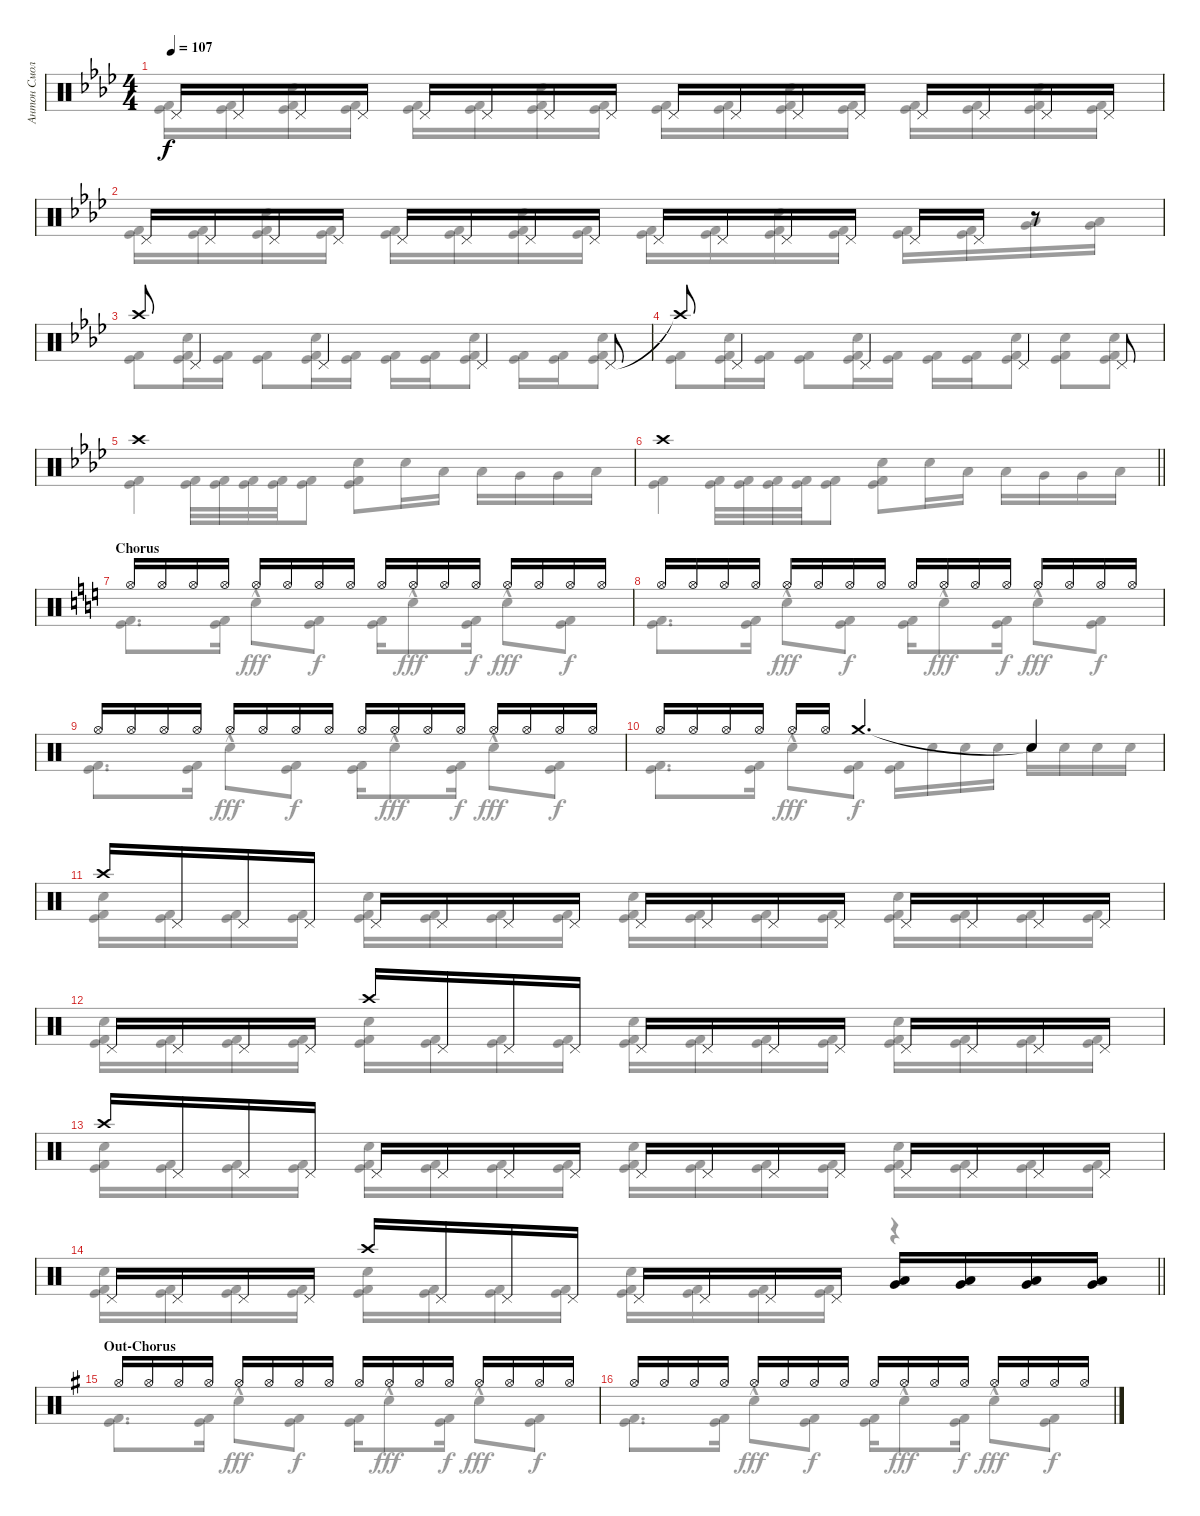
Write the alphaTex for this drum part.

\track ("Антон Смольянин" "Антон Смол") {instrument percussion}
\staff {score}
\articulation defaults
\voice
\ts (4 4)
\tempo 107
\clef neutral
\ks ab "Pedal Hi-Hat (hit)".16{dy f} "Pedal Hi-Hat (hit)".16 "Pedal Hi-Hat (hit)".16 "Pedal Hi-Hat (hit)".16 "Pedal Hi-Hat (hit)".16 "Pedal Hi-Hat (hit)".16 "Pedal Hi-Hat (hit)".16 "Pedal Hi-Hat (hit)".16 "Pedal Hi-Hat (hit)".16 "Pedal Hi-Hat (hit)".16 "Pedal Hi-Hat (hit)".16 "Pedal Hi-Hat (hit)".16 "Pedal Hi-Hat (hit)".16 "Pedal Hi-Hat (hit)".16 "Pedal Hi-Hat (hit)".16 "Pedal Hi-Hat (hit)".16
|
"Pedal Hi-Hat (hit)".16 "Pedal Hi-Hat (hit)".16 "Pedal Hi-Hat (hit)".16 "Pedal Hi-Hat (hit)".16 "Pedal Hi-Hat (hit)".16 "Pedal Hi-Hat (hit)".16 "Pedal Hi-Hat (hit)".16 "Pedal Hi-Hat (hit)".16 "Pedal Hi-Hat (hit)".16 "Pedal Hi-Hat (hit)".16 "Pedal Hi-Hat (hit)".16 "Pedal Hi-Hat (hit)".16 "Pedal Hi-Hat (hit)".16 "Pedal Hi-Hat (hit)".16 r.8 |
"Crash high (hit)".8 "Pedal Hi-Hat (hit)".4 "Pedal Hi-Hat (hit)".4 "Pedal Hi-Hat (hit)".4 "Pedal Hi-Hat (hit)".8 |
"Crash high (hit)"{t}.8 "Pedal Hi-Hat (hit)".4 "Pedal Hi-Hat (hit)".4 "Pedal Hi-Hat (hit)".4 "Pedal Hi-Hat (hit)".8 |
"Crash high (hit)".1 |
\barLineRight lightlight "Crash high (hit)".1
|
\section ("" "Chorus")
\ks c "Hi-Hat (open)".16 "Hi-Hat (open)".16 "Hi-Hat (open)".16 "Hi-Hat (open)".16 "Hi-Hat (open)".16 "Hi-Hat (open)".16 "Hi-Hat (open)".16 "Hi-Hat (open)".16 "Hi-Hat (open)".16 "Hi-Hat (open)".16 "Hi-Hat (open)".16 "Hi-Hat (open)".16 "Hi-Hat (open)".16 "Hi-Hat (open)".16 "Hi-Hat (open)".16 "Hi-Hat (open)".16
|
"Hi-Hat (open)".16 "Hi-Hat (open)".16 "Hi-Hat (open)".16 "Hi-Hat (open)".16 "Hi-Hat (open)".16 "Hi-Hat (open)".16 "Hi-Hat (open)".16 "Hi-Hat (open)".16 "Hi-Hat (open)".16 "Hi-Hat (open)".16 "Hi-Hat (open)".16 "Hi-Hat (open)".16 "Hi-Hat (open)".16 "Hi-Hat (open)".16 "Hi-Hat (open)".16 "Hi-Hat (open)".16 |
"Hi-Hat (open)".16 "Hi-Hat (open)".16 "Hi-Hat (open)".16 "Hi-Hat (open)".16 "Hi-Hat (open)".16 "Hi-Hat (open)".16 "Hi-Hat (open)".16 "Hi-Hat (open)".16 "Hi-Hat (open)".16 "Hi-Hat (open)".16 "Hi-Hat (open)".16 "Hi-Hat (open)".16 "Hi-Hat (open)".16 "Hi-Hat (open)".16 "Hi-Hat (open)".16 "Hi-Hat (open)".16 |
"Hi-Hat (open)".16 "Hi-Hat (open)".16 "Hi-Hat (open)".16 "Hi-Hat (open)".16 "Hi-Hat (open)".16 "Hi-Hat (open)".16 "Crash medium (hit)".4{d} "Snare (hit)"{t}.4 |
"Crash high (hit)".16 "Pedal Hi-Hat (hit)".16 "Pedal Hi-Hat (hit)".16 "Pedal Hi-Hat (hit)".16 "Pedal Hi-Hat (hit)".16 "Pedal Hi-Hat (hit)".16 "Pedal Hi-Hat (hit)".16 "Pedal Hi-Hat (hit)".16 "Pedal Hi-Hat (hit)".16 "Pedal Hi-Hat (hit)".16 "Pedal Hi-Hat (hit)".16 "Pedal Hi-Hat (hit)".16 "Pedal Hi-Hat (hit)".16 "Pedal Hi-Hat (hit)".16 "Pedal Hi-Hat (hit)".16 "Pedal Hi-Hat (hit)".16 |
"Pedal Hi-Hat (hit)".16 "Pedal Hi-Hat (hit)".16 "Pedal Hi-Hat (hit)".16 "Pedal Hi-Hat (hit)".16 "Crash high (hit)".16 "Pedal Hi-Hat (hit)".16 "Pedal Hi-Hat (hit)".16 "Pedal Hi-Hat (hit)".16 "Pedal Hi-Hat (hit)".16 "Pedal Hi-Hat (hit)".16 "Pedal Hi-Hat (hit)".16 "Pedal Hi-Hat (hit)".16 "Pedal Hi-Hat (hit)".16 "Pedal Hi-Hat (hit)".16 "Pedal Hi-Hat (hit)".16 "Pedal Hi-Hat (hit)".16 |
"Crash high (hit)".16 "Pedal Hi-Hat (hit)".16 "Pedal Hi-Hat (hit)".16 "Pedal Hi-Hat (hit)".16 "Pedal Hi-Hat (hit)".16 "Pedal Hi-Hat (hit)".16 "Pedal Hi-Hat (hit)".16 "Pedal Hi-Hat (hit)".16 "Pedal Hi-Hat (hit)".16 "Pedal Hi-Hat (hit)".16 "Pedal Hi-Hat (hit)".16 "Pedal Hi-Hat (hit)".16 "Pedal Hi-Hat (hit)".16 "Pedal Hi-Hat (hit)".16 "Pedal Hi-Hat (hit)".16 "Pedal Hi-Hat (hit)".16 |
\barLineRight lightlight "Pedal Hi-Hat (hit)".16 "Pedal Hi-Hat (hit)".16 "Pedal Hi-Hat (hit)".16 "Pedal Hi-Hat (hit)".16 "Crash high (hit)".16 "Pedal Hi-Hat (hit)".16 "Pedal Hi-Hat (hit)".16 "Pedal Hi-Hat (hit)".16 "Pedal Hi-Hat (hit)".16 "Pedal Hi-Hat (hit)".16 "Pedal Hi-Hat (hit)".16 "Pedal Hi-Hat (hit)".16
("Low Tom (hit)" "Very Low Tom (hit)").16 ("Low Tom (hit)" "Very Low Tom (hit)").16 ("Very Low Tom (hit)" "Low Tom (hit)").16 ("Very Low Tom (hit)" "Low Tom (hit)").16 |
\section ("" "Out-Chorus")
\ks g "Hi-Hat (open)".16 "Hi-Hat (open)".16 "Hi-Hat (open)".16 "Hi-Hat (open)".16 "Hi-Hat (open)".16 "Hi-Hat (open)".16 "Hi-Hat (open)".16 "Hi-Hat (open)".16 "Hi-Hat (open)".16 "Hi-Hat (open)".16 "Hi-Hat (open)".16 "Hi-Hat (open)".16 "Hi-Hat (open)".16 "Hi-Hat (open)".16 "Hi-Hat (open)".16 "Hi-Hat (open)".16
|
"Hi-Hat (open)".16 "Hi-Hat (open)".16 "Hi-Hat (open)".16 "Hi-Hat (open)".16 "Hi-Hat (open)".16 "Hi-Hat (open)".16 "Hi-Hat (open)".16 "Hi-Hat (open)".16 "Hi-Hat (open)".16 "Hi-Hat (open)".16 "Hi-Hat (open)".16 "Hi-Hat (open)".16 "Hi-Hat (open)".16 "Hi-Hat (open)".16 "Hi-Hat (open)".16 "Hi-Hat (open)".16
\voice
\clef neutral
\ottava regular
\simile none
\ks ab
("Kick (hit)" "Kick (hit) 2").16{dy f} ("Kick (hit)" "Kick (hit) 2").16 ("Kick (hit)" "Kick (hit) 2" "Snare (hit) 2").16 ("Kick (hit)" "Kick (hit) 2").16 ("Kick (hit)" "Kick (hit) 2").16 ("Kick (hit)" "Kick (hit) 2").16 ("Kick (hit)" "Kick (hit) 2" "Snare (hit) 2").16 ("Kick (hit)" "Kick (hit) 2").16 ("Kick (hit)" "Kick (hit) 2").16 ("Kick (hit)" "Kick (hit) 2").16 ("Kick (hit)" "Kick (hit) 2" "Snare (hit) 2").16 ("Kick (hit)" "Kick (hit) 2").16 ("Kick (hit)" "Kick (hit) 2").16 ("Kick (hit)" "Kick (hit) 2").16 ("Kick (hit)" "Kick (hit) 2" "Snare (hit) 2").16 ("Kick (hit)" "Kick (hit) 2").16 |
("Kick (hit)" "Kick (hit) 2").16 ("Kick (hit)" "Kick (hit) 2").16 ("Kick (hit)" "Kick (hit) 2" "Snare (hit) 2").16 ("Kick (hit)" "Kick (hit) 2").16 ("Kick (hit)" "Kick (hit) 2").16 ("Kick (hit)" "Kick (hit) 2").16 ("Kick (hit)" "Kick (hit) 2" "Snare (hit) 2").16 ("Kick (hit)" "Kick (hit) 2").16 ("Kick (hit)" "Kick (hit) 2").16 ("Kick (hit)" "Kick (hit) 2").16 ("Kick (hit)" "Kick (hit) 2" "Snare (hit) 2").16 ("Kick (hit)" "Kick (hit) 2").16 ("Kick (hit)" "Kick (hit) 2").16 ("Kick (hit)" "Kick (hit) 2").16 ("Low Tom (hit)" "Very Low Tom (hit)").16 ("Low Tom (hit)" "Very Low Tom (hit)").16 |
("Kick (hit)" "Kick (hit) 2").8 ("Kick (hit)" "Kick (hit) 2" "Snare (hit) 2").16 ("Kick (hit)" "Kick (hit) 2").16 ("Kick (hit)" "Kick (hit) 2").8 ("Kick (hit)" "Kick (hit) 2" "Snare (hit) 2").16 ("Kick (hit)" "Kick (hit) 2").16 ("Kick (hit)" "Kick (hit) 2").16 ("Kick (hit)" "Kick (hit) 2").16 ("Kick (hit)" "Kick (hit) 2" "Snare (hit) 2").8 ("Kick (hit)" "Kick (hit) 2").16 ("Kick (hit)" "Kick (hit) 2").16 ("Kick (hit)" "Kick (hit) 2" "Snare (hit) 2").8 |
("Kick (hit)" "Kick (hit) 2").8 ("Kick (hit)" "Kick (hit) 2" "Snare (hit) 2").16 ("Kick (hit)" "Kick (hit) 2").16 ("Kick (hit)" "Kick (hit) 2").8 ("Kick (hit)" "Kick (hit) 2" "Snare (hit) 2").16 ("Kick (hit)" "Kick (hit) 2").16 ("Kick (hit)" "Kick (hit) 2").16 ("Kick (hit)" "Kick (hit) 2").16 ("Kick (hit)" "Kick (hit) 2" "Snare (hit) 2").8 ("Kick (hit)" "Kick (hit) 2" "Snare (hit) 2").8 ("Kick (hit)" "Kick (hit) 2" "Snare (hit) 2").8 |
("Kick (hit)" "Kick (hit) 2").4 ("Kick (hit)" "Kick (hit) 2").32 ("Kick (hit)" "Kick (hit) 2").32 ("Kick (hit)" "Kick (hit) 2").32 ("Kick (hit)" "Kick (hit) 2").32 ("Kick (hit)" "Kick (hit) 2").8 ("Kick (hit)" "Kick (hit) 2" "Snare (hit) 2").8 "Snare (hit) 2".16 "Low Tom (hit)".16 "Low Tom (hit)".16 "Very Low Tom (hit)".16 "Very Low Tom (hit)".16 "Low Tom (hit)".16 |
\barLineRight lightlight
("Kick (hit)" "Kick (hit) 2").4 ("Kick (hit)" "Kick (hit) 2").32 ("Kick (hit)" "Kick (hit) 2").32 ("Kick (hit)" "Kick (hit) 2").32 ("Kick (hit)" "Kick (hit) 2").32 ("Kick (hit)" "Kick (hit) 2").8 ("Kick (hit)" "Kick (hit) 2" "Snare (hit) 2").8 "Snare (hit) 2".16 "Low Tom (hit)".16 "Low Tom (hit)".16 "Very Low Tom (hit)".16 "Very Low Tom (hit)".16 "Low Tom (hit)".16 |
\ks c
("Kick (hit)" "Kick (hit) 2").8{d} ("Kick (hit)" "Kick (hit) 2").16 "Snare (hit) 2"{hac}.8{dy fff} ("Kick (hit)" "Kick (hit) 2").8{dy f} ("Kick (hit)" "Kick (hit) 2").16 "Snare (hit) 2"{hac}.8{dy fff} ("Kick (hit)" "Kick (hit) 2").16{dy f} "Snare (hit) 2"{hac}.8{dy fff} ("Kick (hit)" "Kick (hit) 2").8{dy f} |
("Kick (hit)" "Kick (hit) 2").8{d} ("Kick (hit)" "Kick (hit) 2").16 "Snare (hit) 2"{hac}.8{dy fff} ("Kick (hit)" "Kick (hit) 2").8{dy f} ("Kick (hit)" "Kick (hit) 2").16 "Snare (hit) 2"{hac}.8{dy fff} ("Kick (hit)" "Kick (hit) 2").16{dy f} "Snare (hit) 2"{hac}.8{dy fff} ("Kick (hit)" "Kick (hit) 2").8{dy f} |
("Kick (hit)" "Kick (hit) 2").8{d} ("Kick (hit)" "Kick (hit) 2").16 "Snare (hit) 2"{hac}.8{dy fff} ("Kick (hit)" "Kick (hit) 2").8{dy f} ("Kick (hit)" "Kick (hit) 2").16 "Snare (hit) 2"{hac}.8{dy fff} ("Kick (hit)" "Kick (hit) 2").16{dy f} "Snare (hit) 2"{hac}.8{dy fff} ("Kick (hit)" "Kick (hit) 2").8{dy f} |
("Kick (hit)" "Kick (hit) 2").8{d} ("Kick (hit)" "Kick (hit) 2").16 "Snare (hit) 2"{hac}.8{dy fff} ("Kick (hit)" "Kick (hit) 2").8{dy f} ("Kick (hit)" "Kick (hit) 2").16 "Snare (hit) 2".16 "Snare (hit) 2".16 "Snare (hit) 2".16 "Snare (hit) 2".16 "Snare (hit) 2".16 "Snare (hit) 2".16 "Snare (hit) 2".16 |
("Kick (hit)" "Kick (hit) 2" "Snare (hit) 2").16 ("Kick (hit)" "Kick (hit) 2").16 ("Kick (hit)" "Kick (hit) 2").16 ("Kick (hit)" "Kick (hit) 2").16 ("Kick (hit)" "Kick (hit) 2" "Snare (hit) 2").16 ("Kick (hit)" "Kick (hit) 2").16 ("Kick (hit)" "Kick (hit) 2").16 ("Kick (hit)" "Kick (hit) 2").16 ("Kick (hit)" "Kick (hit) 2" "Snare (hit) 2").16 ("Kick (hit)" "Kick (hit) 2").16 ("Kick (hit)" "Kick (hit) 2").16 ("Kick (hit)" "Kick (hit) 2").16 ("Kick (hit)" "Kick (hit) 2" "Snare (hit) 2").16 ("Kick (hit)" "Kick (hit) 2").16 ("Kick (hit)" "Kick (hit) 2").16 ("Kick (hit)" "Kick (hit) 2").16 |
("Kick (hit)" "Kick (hit) 2" "Snare (hit) 2").16 ("Kick (hit)" "Kick (hit) 2").16 ("Kick (hit)" "Kick (hit) 2").16 ("Kick (hit)" "Kick (hit) 2").16 ("Kick (hit)" "Kick (hit) 2" "Snare (hit) 2").16 ("Kick (hit)" "Kick (hit) 2").16 ("Kick (hit)" "Kick (hit) 2").16 ("Kick (hit)" "Kick (hit) 2").16 ("Kick (hit)" "Kick (hit) 2" "Snare (hit) 2").16 ("Kick (hit)" "Kick (hit) 2").16 ("Kick (hit)" "Kick (hit) 2").16 ("Kick (hit)" "Kick (hit) 2").16 ("Kick (hit)" "Kick (hit) 2" "Snare (hit) 2").16 ("Kick (hit)" "Kick (hit) 2").16 ("Kick (hit)" "Kick (hit) 2").16 ("Kick (hit)" "Kick (hit) 2").16 |
("Kick (hit)" "Kick (hit) 2" "Snare (hit) 2").16 ("Kick (hit)" "Kick (hit) 2").16 ("Kick (hit)" "Kick (hit) 2").16 ("Kick (hit)" "Kick (hit) 2").16 ("Kick (hit)" "Kick (hit) 2" "Snare (hit) 2").16 ("Kick (hit)" "Kick (hit) 2").16 ("Kick (hit)" "Kick (hit) 2").16 ("Kick (hit)" "Kick (hit) 2").16 ("Kick (hit)" "Kick (hit) 2" "Snare (hit) 2").16 ("Kick (hit)" "Kick (hit) 2").16 ("Kick (hit)" "Kick (hit) 2").16 ("Kick (hit)" "Kick (hit) 2").16 ("Kick (hit)" "Kick (hit) 2" "Snare (hit) 2").16 ("Kick (hit)" "Kick (hit) 2").16 ("Kick (hit)" "Kick (hit) 2").16 ("Kick (hit)" "Kick (hit) 2").16 |
\barLineRight lightlight
("Kick (hit)" "Kick (hit) 2" "Snare (hit) 2").16 ("Kick (hit)" "Kick (hit) 2").16 ("Kick (hit)" "Kick (hit) 2").16 ("Kick (hit)" "Kick (hit) 2").16 ("Kick (hit)" "Kick (hit) 2" "Snare (hit) 2").16 ("Kick (hit)" "Kick (hit) 2").16 ("Kick (hit)" "Kick (hit) 2").16 ("Kick (hit)" "Kick (hit) 2").16 ("Kick (hit)" "Kick (hit) 2" "Snare (hit) 2").16 ("Kick (hit)" "Kick (hit) 2").16 ("Kick (hit)" "Kick (hit) 2").16 ("Kick (hit)" "Kick (hit) 2").16 r.4 |
\ks g
("Kick (hit)" "Kick (hit) 2").8{d} ("Kick (hit)" "Kick (hit) 2").16 "Snare (hit) 2"{hac}.8{dy fff} ("Kick (hit)" "Kick (hit) 2").8{dy f} ("Kick (hit)" "Kick (hit) 2").16 "Snare (hit) 2"{hac}.8{dy fff} ("Kick (hit)" "Kick (hit) 2").16{dy f} "Snare (hit) 2"{hac}.8{dy fff} ("Kick (hit)" "Kick (hit) 2").8{dy f} |
("Kick (hit)" "Kick (hit) 2").8{d} ("Kick (hit)" "Kick (hit) 2").16 "Snare (hit) 2"{hac}.8{dy fff} ("Kick (hit)" "Kick (hit) 2").8{dy f} ("Kick (hit)" "Kick (hit) 2").16 "Snare (hit) 2"{hac}.8{dy fff} ("Kick (hit)" "Kick (hit) 2").16{dy f} "Snare (hit) 2"{hac}.8{dy fff} ("Kick (hit)" "Kick (hit) 2").8{dy f}
